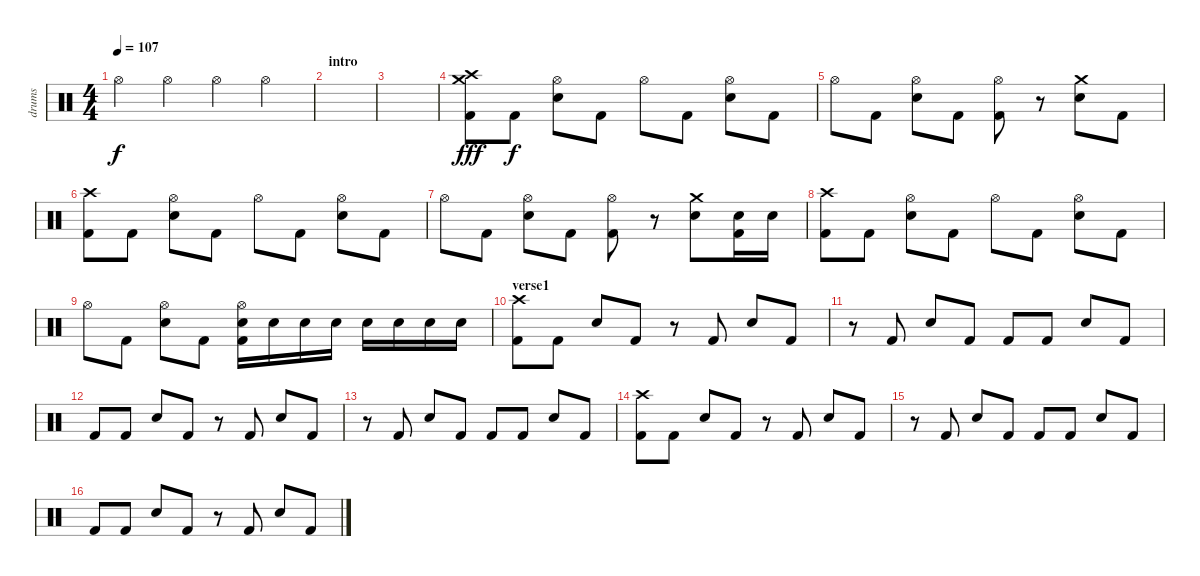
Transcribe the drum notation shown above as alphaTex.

\track ("drums" "drums") {instrument percussion}
\staff {score}
\articulation defaults
\ts (4 4)
\tempo 107
\clef neutral
\ks c "Hi-Hat (open)".4{dy f} "Hi-Hat (open)".4 "Hi-Hat (open)".4 "Hi-Hat (open)".4
|
\section ("" "intro")
|
|
("Crash high (hit)" "Crash medium (hit)" "Kick (hit) 2").8{dy fff} "Kick (hit) 2".8{dy f} ("Hi-Hat (open)" "Electric Snare (hit)").8 "Kick (hit) 2".8 "Hi-Hat (open)".8 "Kick (hit) 2".8 ("Hi-Hat (open)" "Electric Snare (hit)").8 "Kick (hit) 2".8 |
"Hi-Hat (open)".8 "Kick (hit) 2".8 ("Hi-Hat (open)" "Electric Snare (hit)").8 "Kick (hit) 2".8 ("Hi-Hat (open)" "Kick (hit) 2").8 r.8 ("Crash medium (hit)" "Electric Snare (hit)").8 "Kick (hit) 2".8 |
("Crash high (hit)" "Kick (hit) 2").8 "Kick (hit) 2".8 ("Hi-Hat (open)" "Electric Snare (hit)").8 "Kick (hit) 2".8 "Hi-Hat (open)".8 "Kick (hit) 2".8 ("Hi-Hat (open)" "Electric Snare (hit)").8 "Kick (hit) 2".8 |
"Hi-Hat (open)".8 "Kick (hit) 2".8 ("Hi-Hat (open)" "Electric Snare (hit)").8 "Kick (hit) 2".8 ("Hi-Hat (open)" "Kick (hit) 2").8 r.8 ("Crash medium (hit)" "Electric Snare (hit)").8 ("Electric Snare (hit)" "Kick (hit) 2").16 "Electric Snare (hit)".16 |
("Crash high (hit)" "Kick (hit) 2").8 "Kick (hit) 2".8 ("Hi-Hat (open)" "Electric Snare (hit)").8 "Kick (hit) 2".8 "Hi-Hat (open)".8 "Kick (hit) 2".8 ("Hi-Hat (open)" "Electric Snare (hit)").8 "Kick (hit) 2".8 |
"Hi-Hat (open)".8 "Kick (hit) 2".8 ("Hi-Hat (open)" "Electric Snare (hit)").8 "Kick (hit) 2".8 ("Hi-Hat (open)" "Electric Snare (hit)" "Kick (hit) 2").16 "Electric Snare (hit)".16 "Electric Snare (hit)".16 "Electric Snare (hit)".16 "Electric Snare (hit)".16 "Electric Snare (hit)".16 "Electric Snare (hit)".16 "Electric Snare (hit)".16 |
\section ("" "verse1")
("Crash high (hit)" "Kick (hit) 2").8 "Kick (hit) 2".8 "Electric Snare (hit)".8 "Kick (hit) 2".8 r.8 "Kick (hit) 2".8 "Electric Snare (hit)".8 "Kick (hit) 2".8 |
r.8 "Kick (hit) 2".8 "Electric Snare (hit)".8 "Kick (hit) 2".8 "Kick (hit) 2".8 "Kick (hit) 2".8 "Electric Snare (hit)".8 "Kick (hit) 2".8 |
"Kick (hit) 2".8 "Kick (hit) 2".8 "Electric Snare (hit)".8 "Kick (hit) 2".8 r.8 "Kick (hit) 2".8 "Electric Snare (hit)".8 "Kick (hit) 2".8 |
r.8 "Kick (hit) 2".8 "Electric Snare (hit)".8 "Kick (hit) 2".8 "Kick (hit) 2".8 "Kick (hit) 2".8 "Electric Snare (hit)".8 "Kick (hit) 2".8 |
("Crash high (hit)" "Kick (hit) 2").8 "Kick (hit) 2".8 "Electric Snare (hit)".8 "Kick (hit) 2".8 r.8 "Kick (hit) 2".8 "Electric Snare (hit)".8 "Kick (hit) 2".8 |
r.8 "Kick (hit) 2".8 "Electric Snare (hit)".8 "Kick (hit) 2".8 "Kick (hit) 2".8 "Kick (hit) 2".8 "Electric Snare (hit)".8 "Kick (hit) 2".8 |
"Kick (hit) 2".8 "Kick (hit) 2".8 "Electric Snare (hit)".8 "Kick (hit) 2".8 r.8 "Kick (hit) 2".8 "Electric Snare (hit)".8 "Kick (hit) 2".8
